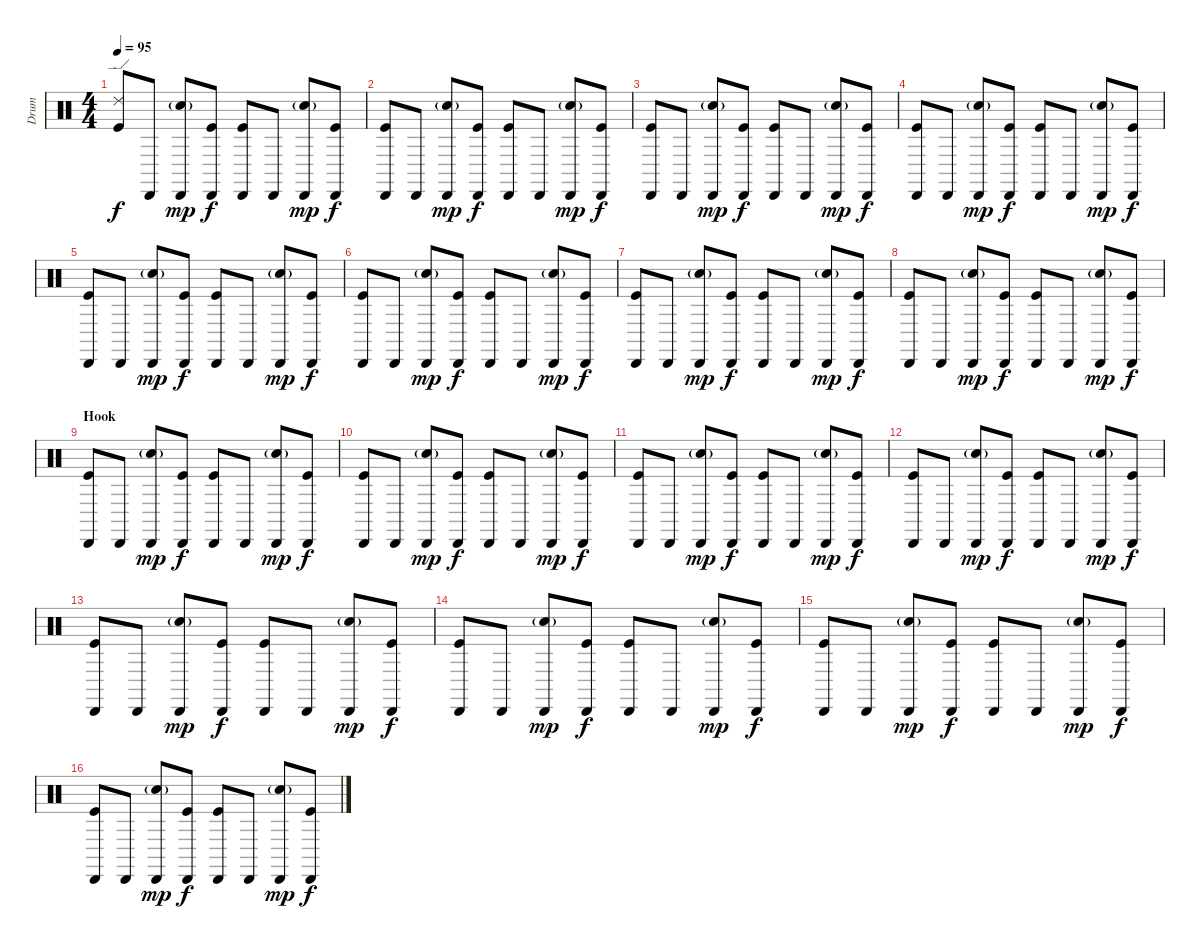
\track ("Drum" "Drum") {instrument percussion}
\staff {score}
\articulation defaults
\ts (4 4)
\tempo 95
\clef neutral
\ks c
("Ride (edge) 2" "Kick (hit)").8{dy f} "Cabasa (hit)".8 ("Cabasa (hit)" "Electric Snare (hit)"{g}).8{dy mp} ("Cabasa (hit)" "Kick (hit)").8{dy f} ("Cabasa (hit)" "Kick (hit)").8 "Cabasa (hit)".8 ("Cabasa (hit)" "Electric Snare (hit)"{g}).8{dy mp} ("Cabasa (hit)" "Kick (hit)").8{dy f} |
("Cabasa (hit)" "Kick (hit)").8 "Cabasa (hit)".8 ("Cabasa (hit)" "Electric Snare (hit)"{g}).8{dy mp} ("Cabasa (hit)" "Kick (hit)").8{dy f} ("Cabasa (hit)" "Kick (hit)").8 "Cabasa (hit)".8 ("Cabasa (hit)" "Electric Snare (hit)"{g}).8{dy mp} ("Cabasa (hit)" "Kick (hit)").8{dy f} |
("Cabasa (hit)" "Kick (hit)").8 "Cabasa (hit)".8 ("Cabasa (hit)" "Electric Snare (hit)"{g}).8{dy mp} ("Cabasa (hit)" "Kick (hit)").8{dy f} ("Cabasa (hit)" "Kick (hit)").8 "Cabasa (hit)".8 ("Cabasa (hit)" "Electric Snare (hit)"{g}).8{dy mp} ("Cabasa (hit)" "Kick (hit)").8{dy f} |
("Cabasa (hit)" "Kick (hit)").8 "Cabasa (hit)".8 ("Cabasa (hit)" "Electric Snare (hit)"{g}).8{dy mp} ("Cabasa (hit)" "Kick (hit)").8{dy f} ("Cabasa (hit)" "Kick (hit)").8 "Cabasa (hit)".8 ("Cabasa (hit)" "Electric Snare (hit)"{g}).8{dy mp} ("Cabasa (hit)" "Kick (hit)").8{dy f} |
("Cabasa (hit)" "Kick (hit)").8 "Cabasa (hit)".8 ("Cabasa (hit)" "Electric Snare (hit)"{g}).8{dy mp} ("Cabasa (hit)" "Kick (hit)").8{dy f} ("Cabasa (hit)" "Kick (hit)").8 "Cabasa (hit)".8 ("Cabasa (hit)" "Electric Snare (hit)"{g}).8{dy mp} ("Cabasa (hit)" "Kick (hit)").8{dy f} |
("Cabasa (hit)" "Kick (hit)").8 "Cabasa (hit)".8 ("Cabasa (hit)" "Electric Snare (hit)"{g}).8{dy mp} ("Cabasa (hit)" "Kick (hit)").8{dy f} ("Cabasa (hit)" "Kick (hit)").8 "Cabasa (hit)".8 ("Cabasa (hit)" "Electric Snare (hit)"{g}).8{dy mp} ("Cabasa (hit)" "Kick (hit)").8{dy f} |
("Cabasa (hit)" "Kick (hit)").8 "Cabasa (hit)".8 ("Cabasa (hit)" "Electric Snare (hit)"{g}).8{dy mp} ("Cabasa (hit)" "Kick (hit)").8{dy f} ("Cabasa (hit)" "Kick (hit)").8 "Cabasa (hit)".8 ("Cabasa (hit)" "Electric Snare (hit)"{g}).8{dy mp} ("Cabasa (hit)" "Kick (hit)").8{dy f} |
("Cabasa (hit)" "Kick (hit)").8 "Cabasa (hit)".8 ("Cabasa (hit)" "Electric Snare (hit)"{g}).8{dy mp} ("Cabasa (hit)" "Kick (hit)").8{dy f} ("Cabasa (hit)" "Kick (hit)").8 "Cabasa (hit)".8 ("Cabasa (hit)" "Electric Snare (hit)"{g}).8{dy mp} ("Cabasa (hit)" "Kick (hit)").8{dy f} |
\section ("" "Hook")
("Cabasa (hit)" "Kick (hit)").8 "Cabasa (hit)".8 ("Cabasa (hit)" "Electric Snare (hit)"{g}).8{dy mp} ("Cabasa (hit)" "Kick (hit)").8{dy f} ("Cabasa (hit)" "Kick (hit)").8 "Cabasa (hit)".8 ("Cabasa (hit)" "Electric Snare (hit)"{g}).8{dy mp} ("Cabasa (hit)" "Kick (hit)").8{dy f} |
("Cabasa (hit)" "Kick (hit)").8 "Cabasa (hit)".8 ("Cabasa (hit)" "Electric Snare (hit)"{g}).8{dy mp} ("Cabasa (hit)" "Kick (hit)").8{dy f} ("Cabasa (hit)" "Kick (hit)").8 "Cabasa (hit)".8 ("Cabasa (hit)" "Electric Snare (hit)"{g}).8{dy mp} ("Cabasa (hit)" "Kick (hit)").8{dy f} |
("Cabasa (hit)" "Kick (hit)").8 "Cabasa (hit)".8 ("Cabasa (hit)" "Electric Snare (hit)"{g}).8{dy mp} ("Cabasa (hit)" "Kick (hit)").8{dy f} ("Cabasa (hit)" "Kick (hit)").8 "Cabasa (hit)".8 ("Cabasa (hit)" "Electric Snare (hit)"{g}).8{dy mp} ("Cabasa (hit)" "Kick (hit)").8{dy f} |
("Cabasa (hit)" "Kick (hit)").8 "Cabasa (hit)".8 ("Cabasa (hit)" "Electric Snare (hit)"{g}).8{dy mp} ("Cabasa (hit)" "Kick (hit)").8{dy f} ("Cabasa (hit)" "Kick (hit)").8 "Cabasa (hit)".8 ("Cabasa (hit)" "Electric Snare (hit)"{g}).8{dy mp} ("Cabasa (hit)" "Kick (hit)").8{dy f} |
("Cabasa (hit)" "Kick (hit)").8 "Cabasa (hit)".8 ("Cabasa (hit)" "Electric Snare (hit)"{g}).8{dy mp} ("Cabasa (hit)" "Kick (hit)").8{dy f} ("Cabasa (hit)" "Kick (hit)").8 "Cabasa (hit)".8 ("Cabasa (hit)" "Electric Snare (hit)"{g}).8{dy mp} ("Cabasa (hit)" "Kick (hit)").8{dy f} |
("Cabasa (hit)" "Kick (hit)").8 "Cabasa (hit)".8 ("Cabasa (hit)" "Electric Snare (hit)"{g}).8{dy mp} ("Cabasa (hit)" "Kick (hit)").8{dy f} ("Cabasa (hit)" "Kick (hit)").8 "Cabasa (hit)".8 ("Cabasa (hit)" "Electric Snare (hit)"{g}).8{dy mp} ("Cabasa (hit)" "Kick (hit)").8{dy f} |
("Cabasa (hit)" "Kick (hit)").8 "Cabasa (hit)".8 ("Cabasa (hit)" "Electric Snare (hit)"{g}).8{dy mp} ("Cabasa (hit)" "Kick (hit)").8{dy f} ("Cabasa (hit)" "Kick (hit)").8 "Cabasa (hit)".8 ("Cabasa (hit)" "Electric Snare (hit)"{g}).8{dy mp} ("Cabasa (hit)" "Kick (hit)").8{dy f} |
("Cabasa (hit)" "Kick (hit)").8 "Cabasa (hit)".8 ("Cabasa (hit)" "Electric Snare (hit)"{g}).8{dy mp} ("Cabasa (hit)" "Kick (hit)").8{dy f} ("Cabasa (hit)" "Kick (hit)").8 "Cabasa (hit)".8 ("Cabasa (hit)" "Electric Snare (hit)"{g}).8{dy mp} ("Cabasa (hit)" "Kick (hit)").8{dy f}
